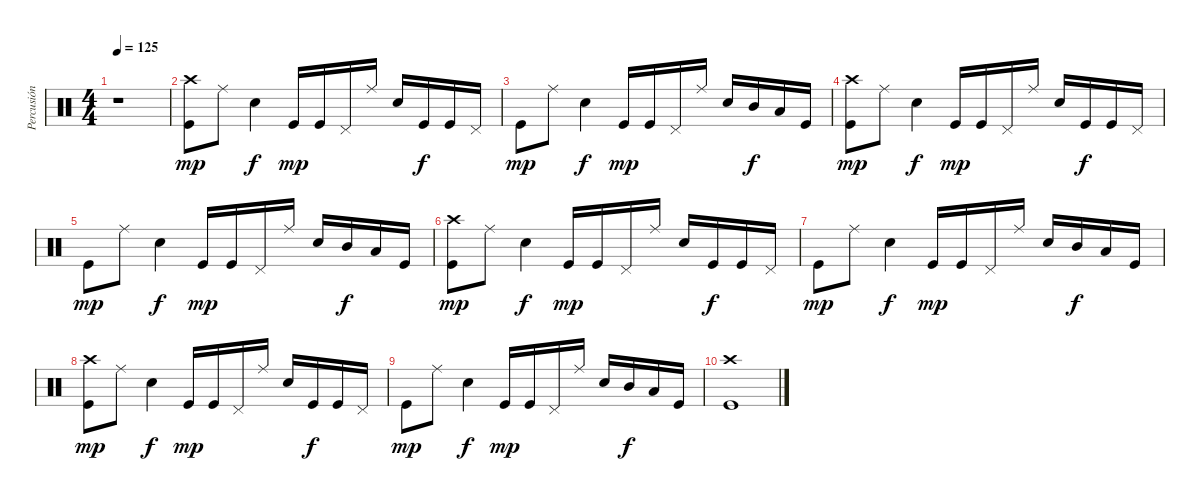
\track ("Percusión" "Percusión") {instrument percussion}
\staff {score}
\articulation defaults
\ts (4 4)
\tempo 125
\clef neutral
\ks c
r.1{dy fff} |
("Kick (hit)" "Crash high (hit)").8{dy mp} "Ride (middle)".8 "Snare (hit) 2".4{dy f} "Kick (hit)".16{dy mp} "Kick (hit)".16 "Pedal Hi-Hat (hit)".16 "Ride (middle)".16 "Snare (hit) 2".16 "Kick (hit)".16{dy f} "Kick (hit)".16 "Pedal Hi-Hat (hit)".16 |
"Kick (hit)".8{dy mp} "Ride (middle)".8 "Snare (hit) 2".4{dy f} "Kick (hit)".16{dy mp} "Kick (hit)".16 "Pedal Hi-Hat (hit)".16 "Ride (middle)".16 "Snare (hit) 2".16 "Mid Tom (hit)".16{dy f} "Low Tom (hit)".16 "Kick (hit)".16 |
("Kick (hit)" "Crash high (hit)").8{dy mp} "Ride (middle)".8 "Snare (hit) 2".4{dy f} "Kick (hit)".16{dy mp} "Kick (hit)".16 "Pedal Hi-Hat (hit)".16 "Ride (middle)".16 "Snare (hit) 2".16 "Kick (hit)".16{dy f} "Kick (hit)".16 "Pedal Hi-Hat (hit)".16 |
"Kick (hit)".8{dy mp} "Ride (middle)".8 "Snare (hit) 2".4{dy f} "Kick (hit)".16{dy mp} "Kick (hit)".16 "Pedal Hi-Hat (hit)".16 "Ride (middle)".16 "Snare (hit) 2".16 "Mid Tom (hit)".16{dy f} "Low Tom (hit)".16 "Kick (hit)".16 |
("Kick (hit)" "Crash high (hit)").8{dy mp} "Ride (middle)".8 "Snare (hit) 2".4{dy f} "Kick (hit)".16{dy mp} "Kick (hit)".16 "Pedal Hi-Hat (hit)".16 "Ride (middle)".16 "Snare (hit) 2".16 "Kick (hit)".16{dy f} "Kick (hit)".16 "Pedal Hi-Hat (hit)".16 |
"Kick (hit)".8{dy mp} "Ride (middle)".8 "Snare (hit) 2".4{dy f} "Kick (hit)".16{dy mp} "Kick (hit)".16 "Pedal Hi-Hat (hit)".16 "Ride (middle)".16 "Snare (hit) 2".16 "Mid Tom (hit)".16{dy f} "Low Tom (hit)".16 "Kick (hit)".16 |
("Kick (hit)" "Crash high (hit)").8{dy mp} "Ride (middle)".8 "Snare (hit) 2".4{dy f} "Kick (hit)".16{dy mp} "Kick (hit)".16 "Pedal Hi-Hat (hit)".16 "Ride (middle)".16 "Snare (hit) 2".16 "Kick (hit)".16{dy f} "Kick (hit)".16 "Pedal Hi-Hat (hit)".16 |
"Kick (hit)".8{dy mp} "Ride (middle)".8 "Snare (hit) 2".4{dy f} "Kick (hit)".16{dy mp} "Kick (hit)".16 "Pedal Hi-Hat (hit)".16 "Ride (middle)".16 "Snare (hit) 2".16 "Mid Tom (hit)".16{dy f} "Low Tom (hit)".16 "Kick (hit)".16 |
("Kick (hit)" "Crash high (hit)").1
